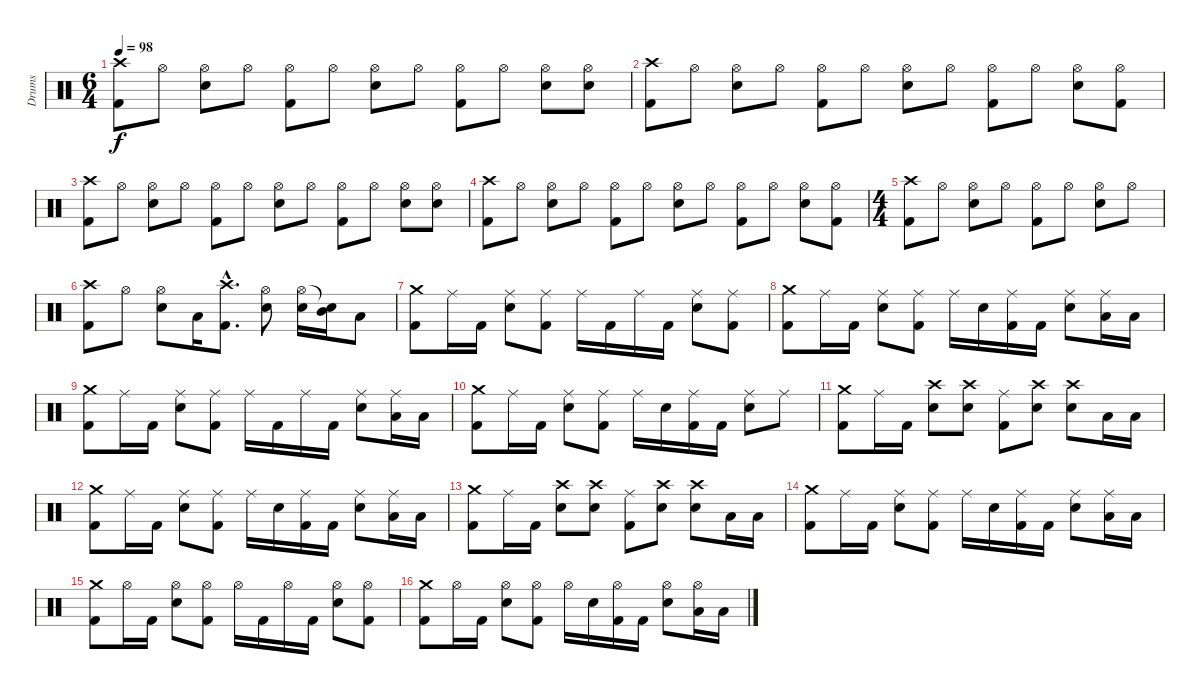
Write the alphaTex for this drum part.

\track ("Drums" "Drums") {instrument percussion}
\staff {score}
\articulation defaults
\ts (6 4)
\tempo 98
\clef neutral
\ks c
("Crash high (hit)" "Kick (hit) 2").8{dy f} "Hi-Hat (open)".8 ("Hi-Hat (open)" "Snare (hit) 2").8 "Hi-Hat (open)".8 ("Hi-Hat (open)" "Kick (hit) 2").8 "Hi-Hat (open)".8 ("Hi-Hat (open)" "Snare (hit) 2").8 "Hi-Hat (open)".8 ("Hi-Hat (open)" "Kick (hit) 2").8 "Hi-Hat (open)".8 ("Hi-Hat (open)" "Snare (hit) 2").8 ("Hi-Hat (open)" "Snare (hit) 2").8 |
("Crash high (hit)" "Kick (hit) 2").8 "Hi-Hat (open)".8 ("Hi-Hat (open)" "Snare (hit) 2").8 "Hi-Hat (open)".8 ("Hi-Hat (open)" "Kick (hit) 2").8 "Hi-Hat (open)".8 ("Hi-Hat (open)" "Snare (hit) 2").8 "Hi-Hat (open)".8 ("Hi-Hat (open)" "Kick (hit) 2").8 "Hi-Hat (open)".8 ("Hi-Hat (open)" "Snare (hit) 2").8 ("Hi-Hat (open)" "Kick (hit) 2").8 |
("Crash high (hit)" "Kick (hit) 2").8 "Hi-Hat (open)".8 ("Hi-Hat (open)" "Snare (hit) 2").8 "Hi-Hat (open)".8 ("Hi-Hat (open)" "Kick (hit) 2").8 "Hi-Hat (open)".8 ("Hi-Hat (open)" "Snare (hit) 2").8 "Hi-Hat (open)".8 ("Hi-Hat (open)" "Kick (hit) 2").8 "Hi-Hat (open)".8 ("Hi-Hat (open)" "Snare (hit) 2").8 ("Hi-Hat (open)" "Snare (hit) 2").8 |
("Crash high (hit)" "Kick (hit) 2").8 "Hi-Hat (open)".8 ("Hi-Hat (open)" "Snare (hit) 2").8 "Hi-Hat (open)".8 ("Hi-Hat (open)" "Kick (hit) 2").8 "Hi-Hat (open)".8 ("Hi-Hat (open)" "Snare (hit) 2").8 "Hi-Hat (open)".8 ("Hi-Hat (open)" "Kick (hit) 2").8 "Hi-Hat (open)".8 ("Hi-Hat (open)" "Snare (hit) 2").8 ("Hi-Hat (open)" "Kick (hit) 2").8 |
\ts (4 4)
("Crash high (hit)" "Kick (hit) 2").8 "Hi-Hat (open)".8 ("Hi-Hat (open)" "Snare (hit) 2").8 "Hi-Hat (open)".8 ("Hi-Hat (open)" "Kick (hit) 2").8 "Hi-Hat (open)".8 ("Hi-Hat (open)" "Snare (hit) 2").8 "Hi-Hat (open)".8 |
("Crash high (hit)" "Kick (hit) 2").8 "Hi-Hat (open)".8 ("Hi-Hat (open)" "Snare (hit) 2").8 "Low Tom (hit)".16 ("Crash high (hit)"{hac} "Kick (hit) 2"{hac}).8{d} ("Hi-Hat (open)" "Snare (hit) 2").8 ("Hi-Hat (open)" "Snare (hit) 2").16 ("Snare (hit)"{t} "Mid Tom (hit)").16 "Low Tom (hit)".8 |
("Crash medium (hit)" "Kick (hit) 2").8 "Ride (middle)".16 "Kick (hit) 2".16 ("Ride (middle)" "Snare (hit) 2").8 ("Ride (middle)" "Kick (hit) 2").8 "Ride (middle)".16 "Kick (hit) 2".16 "Ride (middle)".16 "Kick (hit) 2".16 ("Ride (middle)" "Snare (hit) 2").8 ("Ride (middle)" "Kick (hit) 2").8 |
("Crash medium (hit)" "Kick (hit) 2").8 "Ride (middle)".16 "Kick (hit) 2".16 ("Ride (middle)" "Snare (hit) 2").8 ("Ride (middle)" "Kick (hit) 2").8 "Ride (middle)".16 "Snare (hit) 2".16 ("Ride (middle)" "Kick (hit) 2").16 "Kick (hit) 2".16 ("Ride (middle)" "Snare (hit) 2").8 ("Ride (middle)" "Low Tom (hit)").16 "Low Tom (hit)".16 |
("Crash medium (hit)" "Kick (hit) 2").8 "Ride (middle)".16 "Kick (hit) 2".16 ("Ride (middle)" "Snare (hit) 2").8 ("Ride (middle)" "Kick (hit) 2").8 "Ride (middle)".16 "Kick (hit) 2".16 "Ride (middle)".16 "Kick (hit) 2".16 ("Ride (middle)" "Snare (hit) 2").8 ("Ride (middle)" "Low Tom (hit)").16 "Low Tom (hit)".16 |
("Crash medium (hit)" "Kick (hit) 2").8 "Ride (middle)".16 "Kick (hit) 2".16 ("Ride (middle)" "Snare (hit) 2").8 ("Ride (middle)" "Kick (hit) 2").8 "Ride (middle)".16 "Snare (hit) 2".16 ("Ride (middle)" "Kick (hit) 2").16 "Kick (hit) 2".16 ("Ride (middle)" "Snare (hit) 2").8 "Ride (middle)".8 |
("Crash medium (hit)" "Kick (hit) 2").8 "Ride (middle)".16 "Kick (hit) 2".16 ("Crash high (hit)" "Snare (hit) 2").8 ("Crash high (hit)" "Snare (hit) 2").8 ("Ride (middle)" "Kick (hit) 2").8 ("Crash high (hit)" "Snare (hit) 2").8 ("Crash high (hit)" "Snare (hit) 2").8 "Low Tom (hit)".16 "Low Tom (hit)".16 |
("Crash medium (hit)" "Kick (hit) 2").8 "Ride (middle)".16 "Kick (hit) 2".16 ("Ride (middle)" "Snare (hit) 2").8 ("Ride (middle)" "Kick (hit) 2").8 "Ride (middle)".16 "Snare (hit) 2".16 ("Ride (middle)" "Kick (hit) 2").16 "Kick (hit) 2".16 ("Ride (middle)" "Snare (hit) 2").8 ("Ride (middle)" "Low Tom (hit)").16 "Low Tom (hit)".16 |
("Crash medium (hit)" "Kick (hit) 2").8 "Ride (middle)".16 "Kick (hit) 2".16 ("Crash high (hit)" "Snare (hit) 2").8 ("Crash high (hit)" "Snare (hit) 2").8 ("Ride (middle)" "Kick (hit) 2").8 ("Crash high (hit)" "Snare (hit) 2").8 ("Crash high (hit)" "Snare (hit) 2").8 "Low Tom (hit)".16 "Low Tom (hit)".16 |
("Crash medium (hit)" "Kick (hit) 2").8 "Ride (middle)".16 "Kick (hit) 2".16 ("Ride (middle)" "Snare (hit) 2").8 ("Ride (middle)" "Kick (hit) 2").8 "Ride (middle)".16 "Snare (hit) 2".16 ("Ride (middle)" "Kick (hit) 2").16 "Kick (hit) 2".16 ("Ride (middle)" "Snare (hit) 2").8 ("Ride (middle)" "Low Tom (hit)").16 "Low Tom (hit)".16 |
("Crash medium (hit)" "Kick (hit) 2").8 "Hi-Hat (open)".16 "Kick (hit) 2".16 ("Hi-Hat (open)" "Snare (hit) 2").8 ("Hi-Hat (open)" "Kick (hit) 2").8 "Hi-Hat (open)".16 "Kick (hit) 2".16 "Hi-Hat (open)".16 "Kick (hit) 2".16 ("Hi-Hat (open)" "Snare (hit) 2").8 ("Hi-Hat (open)" "Kick (hit) 2").8 |
("Crash medium (hit)" "Kick (hit) 2").8 "Hi-Hat (open)".16 "Kick (hit) 2".16 ("Hi-Hat (open)" "Snare (hit) 2").8 ("Hi-Hat (open)" "Kick (hit) 2").8 "Hi-Hat (open)".16 "Snare (hit) 2".16 ("Hi-Hat (open)" "Kick (hit) 2").16 "Kick (hit) 2".16 ("Hi-Hat (open)" "Snare (hit) 2").8 ("Hi-Hat (open)" "Low Tom (hit)").16 "Low Tom (hit)".16
